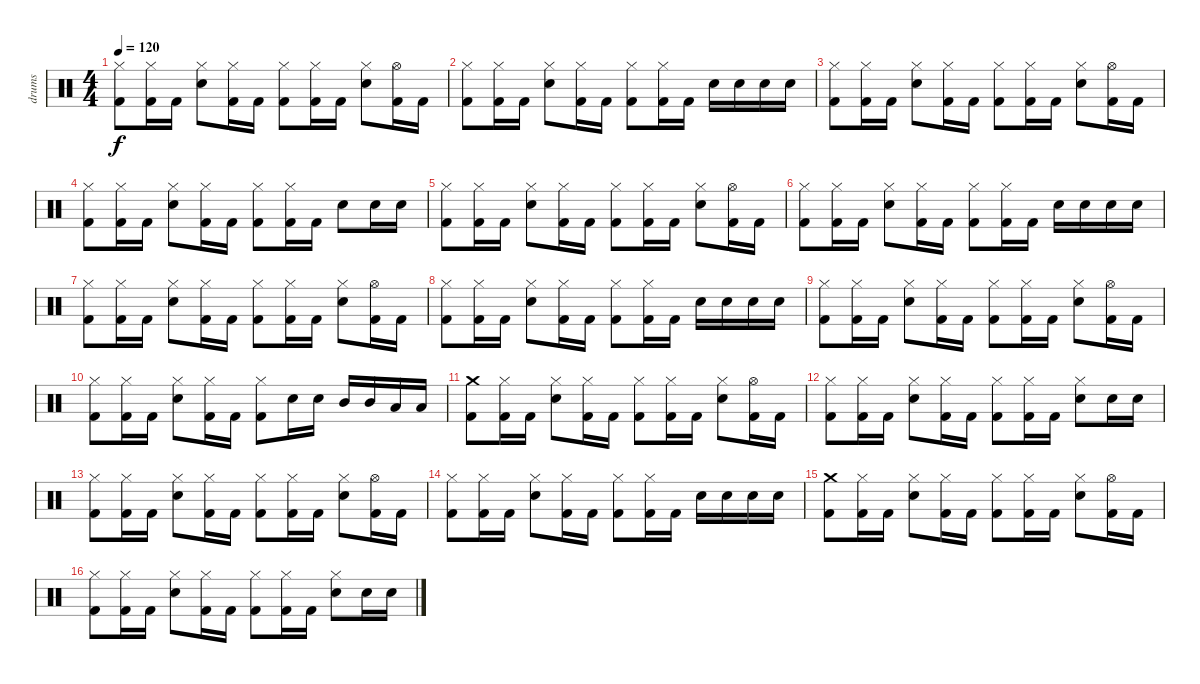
\track ("drums" "drums") {instrument percussion}
\staff {score}
\articulation defaults
\ts (4 4)
\tempo 120
\clef neutral
\ks c
("Hi-Hat (closed)" "Kick (hit) 2").8{dy f} ("Hi-Hat (closed)" "Kick (hit) 2").16 "Kick (hit) 2".16 ("Hi-Hat (closed)" "Snare (hit) 2").8 ("Hi-Hat (closed)" "Kick (hit) 2").16 "Kick (hit) 2".16 ("Hi-Hat (closed)" "Kick (hit) 2").8 ("Hi-Hat (closed)" "Kick (hit) 2").16 "Kick (hit) 2".16 ("Hi-Hat (closed)" "Snare (hit) 2").8 ("Hi-Hat (open)" "Kick (hit) 2").16 "Kick (hit) 2".16 |
("Hi-Hat (closed)" "Kick (hit) 2").8 ("Hi-Hat (closed)" "Kick (hit) 2").16 "Kick (hit) 2".16 ("Hi-Hat (closed)" "Snare (hit) 2").8 ("Hi-Hat (closed)" "Kick (hit) 2").16 "Kick (hit) 2".16 ("Hi-Hat (closed)" "Kick (hit) 2").8 ("Hi-Hat (closed)" "Kick (hit) 2").16 "Kick (hit) 2".16 "Snare (hit) 2".16 "Snare (hit) 2".16 "Snare (hit) 2".16 "Snare (hit) 2".16 |
("Hi-Hat (closed)" "Kick (hit) 2").8 ("Hi-Hat (closed)" "Kick (hit) 2").16 "Kick (hit) 2".16 ("Hi-Hat (closed)" "Snare (hit) 2").8 ("Hi-Hat (closed)" "Kick (hit) 2").16 "Kick (hit) 2".16 ("Hi-Hat (closed)" "Kick (hit) 2").8 ("Hi-Hat (closed)" "Kick (hit) 2").16 "Kick (hit) 2".16 ("Hi-Hat (closed)" "Snare (hit) 2").8 ("Hi-Hat (open)" "Kick (hit) 2").16 "Kick (hit) 2".16 |
("Hi-Hat (closed)" "Kick (hit) 2").8 ("Hi-Hat (closed)" "Kick (hit) 2").16 "Kick (hit) 2".16 ("Hi-Hat (closed)" "Snare (hit) 2").8 ("Hi-Hat (closed)" "Kick (hit) 2").16 "Kick (hit) 2".16 ("Hi-Hat (closed)" "Kick (hit) 2").8 ("Hi-Hat (closed)" "Kick (hit) 2").16 "Kick (hit) 2".16 "Snare (hit) 2".8 "Snare (hit) 2".16 "Snare (hit) 2".16 |
("Hi-Hat (closed)" "Kick (hit) 2").8 ("Hi-Hat (closed)" "Kick (hit) 2").16 "Kick (hit) 2".16 ("Hi-Hat (closed)" "Snare (hit) 2").8 ("Hi-Hat (closed)" "Kick (hit) 2").16 "Kick (hit) 2".16 ("Hi-Hat (closed)" "Kick (hit) 2").8 ("Hi-Hat (closed)" "Kick (hit) 2").16 "Kick (hit) 2".16 ("Hi-Hat (closed)" "Snare (hit) 2").8 ("Hi-Hat (open)" "Kick (hit) 2").16 "Kick (hit) 2".16 |
("Hi-Hat (closed)" "Kick (hit) 2").8 ("Hi-Hat (closed)" "Kick (hit) 2").16 "Kick (hit) 2".16 ("Hi-Hat (closed)" "Snare (hit) 2").8 ("Hi-Hat (closed)" "Kick (hit) 2").16 "Kick (hit) 2".16 ("Hi-Hat (closed)" "Kick (hit) 2").8 ("Hi-Hat (closed)" "Kick (hit) 2").16 "Kick (hit) 2".16 "Snare (hit) 2".16 "Snare (hit) 2".16 "Snare (hit) 2".16 "Snare (hit) 2".16 |
("Hi-Hat (closed)" "Kick (hit) 2").8 ("Hi-Hat (closed)" "Kick (hit) 2").16 "Kick (hit) 2".16 ("Hi-Hat (closed)" "Snare (hit) 2").8 ("Hi-Hat (closed)" "Kick (hit) 2").16 "Kick (hit) 2".16 ("Hi-Hat (closed)" "Kick (hit) 2").8 ("Hi-Hat (closed)" "Kick (hit) 2").16 "Kick (hit) 2".16 ("Hi-Hat (closed)" "Snare (hit) 2").8 ("Hi-Hat (open)" "Kick (hit) 2").16 "Kick (hit) 2".16 |
("Hi-Hat (closed)" "Kick (hit) 2").8 ("Hi-Hat (closed)" "Kick (hit) 2").16 "Kick (hit) 2".16 ("Hi-Hat (closed)" "Snare (hit) 2").8 ("Hi-Hat (closed)" "Kick (hit) 2").16 "Kick (hit) 2".16 ("Hi-Hat (closed)" "Kick (hit) 2").8 ("Hi-Hat (closed)" "Kick (hit) 2").16 "Kick (hit) 2".16 "Snare (hit) 2".16 "Snare (hit) 2".16 "Snare (hit) 2".16 "Snare (hit) 2".16 |
("Hi-Hat (closed)" "Kick (hit) 2").8 ("Hi-Hat (closed)" "Kick (hit) 2").16 "Kick (hit) 2".16 ("Hi-Hat (closed)" "Snare (hit) 2").8 ("Hi-Hat (closed)" "Kick (hit) 2").16 "Kick (hit) 2".16 ("Hi-Hat (closed)" "Kick (hit) 2").8 ("Hi-Hat (closed)" "Kick (hit) 2").16 "Kick (hit) 2".16 ("Hi-Hat (closed)" "Snare (hit) 2").8 ("Hi-Hat (open)" "Kick (hit) 2").16 "Kick (hit) 2".16 |
("Hi-Hat (closed)" "Kick (hit) 2").8 ("Hi-Hat (closed)" "Kick (hit) 2").16 "Kick (hit) 2".16 ("Hi-Hat (closed)" "Snare (hit) 2").8 ("Hi-Hat (closed)" "Kick (hit) 2").16 "Kick (hit) 2".16 ("Hi-Hat (closed)" "Kick (hit) 2").8 "Snare (hit) 2".16 "Snare (hit) 2".16 "Mid Tom (hit)".16 "Mid Tom (hit)".16 "Low Tom (hit)".16 "Low Tom (hit)".16 |
("Crash medium (hit)" "Kick (hit) 2").8 ("Hi-Hat (closed)" "Kick (hit) 2").16 "Kick (hit) 2".16 ("Hi-Hat (closed)" "Snare (hit) 2").8 ("Hi-Hat (closed)" "Kick (hit) 2").16 "Kick (hit) 2".16 ("Hi-Hat (closed)" "Kick (hit) 2").8 ("Hi-Hat (closed)" "Kick (hit) 2").16 "Kick (hit) 2".16 ("Hi-Hat (closed)" "Snare (hit) 2").8 ("Hi-Hat (open)" "Kick (hit) 2").16 "Kick (hit) 2".16 |
("Hi-Hat (closed)" "Kick (hit) 2").8 ("Hi-Hat (closed)" "Kick (hit) 2").16 "Kick (hit) 2".16 ("Hi-Hat (closed)" "Snare (hit) 2").8 ("Hi-Hat (closed)" "Kick (hit) 2").16 "Kick (hit) 2".16 ("Hi-Hat (closed)" "Kick (hit) 2").8 ("Hi-Hat (closed)" "Kick (hit) 2").16 "Kick (hit) 2".16 ("Hi-Hat (closed)" "Snare (hit) 2").8 "Snare (hit) 2".16 "Snare (hit) 2".16 |
("Hi-Hat (closed)" "Kick (hit) 2").8 ("Hi-Hat (closed)" "Kick (hit) 2").16 "Kick (hit) 2".16 ("Hi-Hat (closed)" "Snare (hit) 2").8 ("Hi-Hat (closed)" "Kick (hit) 2").16 "Kick (hit) 2".16 ("Hi-Hat (closed)" "Kick (hit) 2").8 ("Hi-Hat (closed)" "Kick (hit) 2").16 "Kick (hit) 2".16 ("Hi-Hat (closed)" "Snare (hit) 2").8 ("Hi-Hat (open)" "Kick (hit) 2").16 "Kick (hit) 2".16 |
("Hi-Hat (closed)" "Kick (hit) 2").8 ("Hi-Hat (closed)" "Kick (hit) 2").16 "Kick (hit) 2".16 ("Hi-Hat (closed)" "Snare (hit) 2").8 ("Hi-Hat (closed)" "Kick (hit) 2").16 "Kick (hit) 2".16 ("Hi-Hat (closed)" "Kick (hit) 2").8 ("Hi-Hat (closed)" "Kick (hit) 2").16 "Kick (hit) 2".16 "Snare (hit) 2".16 "Snare (hit) 2".16 "Snare (hit) 2".16 "Snare (hit) 2".16 |
("Crash medium (hit)" "Kick (hit) 2").8 ("Hi-Hat (closed)" "Kick (hit) 2").16 "Kick (hit) 2".16 ("Hi-Hat (closed)" "Snare (hit) 2").8 ("Hi-Hat (closed)" "Kick (hit) 2").16 "Kick (hit) 2".16 ("Hi-Hat (closed)" "Kick (hit) 2").8 ("Hi-Hat (closed)" "Kick (hit) 2").16 "Kick (hit) 2".16 ("Hi-Hat (closed)" "Snare (hit) 2").8 ("Hi-Hat (open)" "Kick (hit) 2").16 "Kick (hit) 2".16 |
("Hi-Hat (closed)" "Kick (hit) 2").8 ("Hi-Hat (closed)" "Kick (hit) 2").16 "Kick (hit) 2".16 ("Hi-Hat (closed)" "Snare (hit) 2").8 ("Hi-Hat (closed)" "Kick (hit) 2").16 "Kick (hit) 2".16 ("Hi-Hat (closed)" "Kick (hit) 2").8 ("Hi-Hat (closed)" "Kick (hit) 2").16 "Kick (hit) 2".16 ("Hi-Hat (closed)" "Snare (hit) 2").8 "Snare (hit) 2".16 "Snare (hit) 2".16
